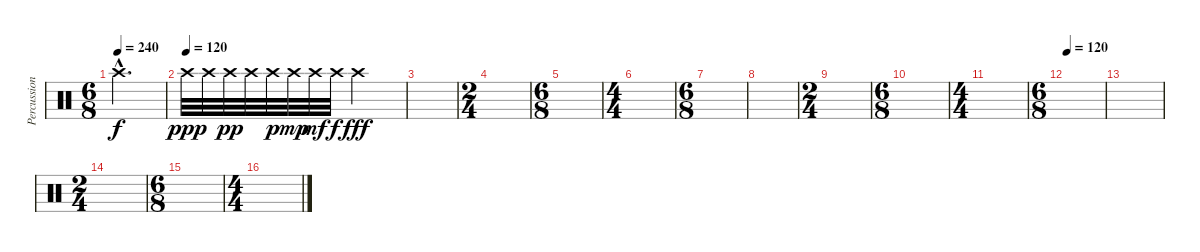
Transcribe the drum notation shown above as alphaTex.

\track ("Percussion" "Percussion") {instrument percussion}
\staff {score}
\articulation defaults
\ts (6 8)
\tempo 240
\clef neutral
\ks c "Crash high (hit)"{hac}.2{d dy f}
|
\tempo (120)
"Crash high (hit)".32{dy ppp} "Crash high (hit)".32 "Crash high (hit)".32{dy pp} "Crash high (hit)".32 "Crash high (hit)".32{dy p} "Crash high (hit)".32{dy mp} "Crash high (hit)".32{dy mf} "Crash high (hit)".32{dy f} "Crash high (hit)".2{dy fff} |
|
\ts (2 4)
|
\ts (6 8)
|
\ts (4 4)
|
\ts (6 8)
|
|
\ts (2 4)
|
\ts (6 8)
|
\ts (4 4)
|
\ts (6 8)
\tempo 120
|
|
\ts (2 4)
|
\ts (6 8)
|
\ts (4 4)
